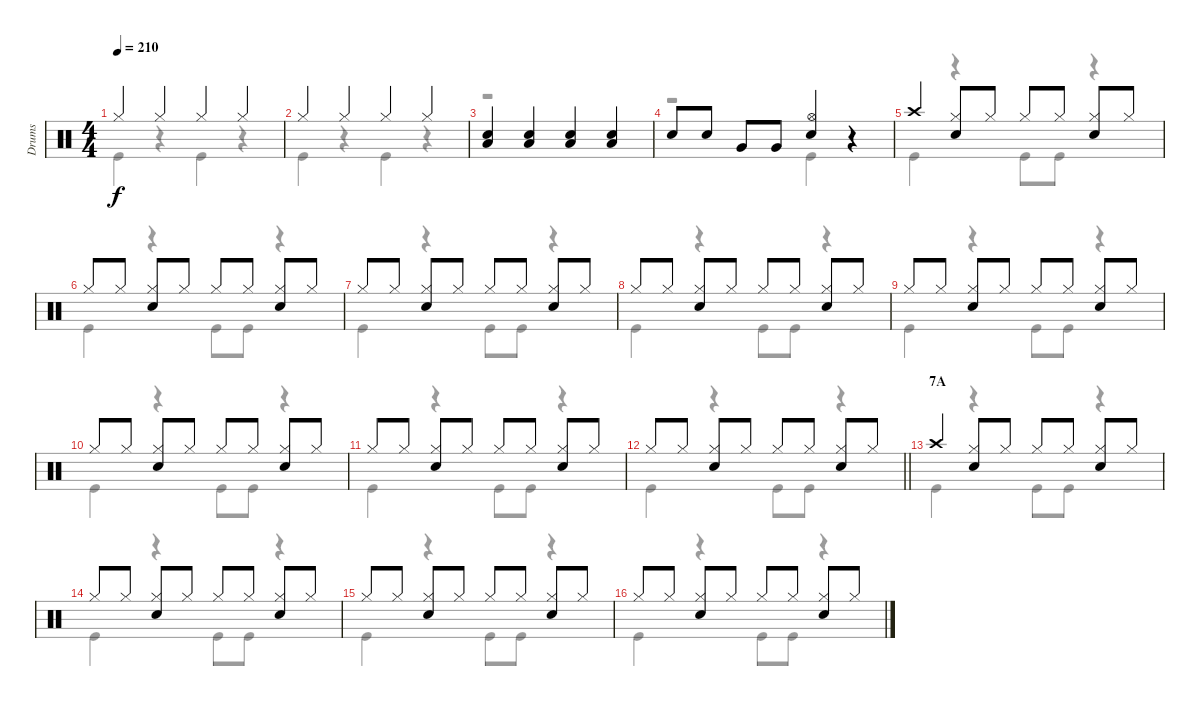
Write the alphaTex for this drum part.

\track ("Drums" "Drums") {instrument percussion}
\staff {score}
\articulation defaults
\voice
\ts (4 4)
\tempo 210
\clef neutral
\ks c "Hi-Hat (closed)".4{dy f} "Hi-Hat (closed)".4 "Hi-Hat (closed)".4 "Hi-Hat (closed)".4
|
"Hi-Hat (closed)".4 "Hi-Hat (closed)".4 "Hi-Hat (closed)".4 "Hi-Hat (closed)".4 |
("Snare (hit) 2" "Low Tom (hit)").4 ("Snare (hit) 2" "Low Tom (hit)").4 ("Snare (hit) 2" "Low Tom (hit)").4 ("Snare (hit) 2" "Low Tom (hit)").4 |
"Snare (hit) 2".8 "Snare (hit) 2".8 "Very Low Tom (hit)".8 "Very Low Tom (hit)".8 ("Hi-Hat (open)" "Snare (hit) 2").4 r.4 |
"Crash high (hit)".4 ("Hi-Hat (closed)" "Snare (hit) 2").8 "Hi-Hat (closed)".8 "Hi-Hat (closed)".8 "Hi-Hat (closed)".8 ("Hi-Hat (closed)" "Snare (hit) 2").8 "Hi-Hat (closed)".8 |
"Hi-Hat (closed)".8 "Hi-Hat (closed)".8 ("Hi-Hat (closed)" "Snare (hit) 2").8 "Hi-Hat (closed)".8 "Hi-Hat (closed)".8 "Hi-Hat (closed)".8 ("Hi-Hat (closed)" "Snare (hit) 2").8 "Hi-Hat (closed)".8 |
"Hi-Hat (closed)".8 "Hi-Hat (closed)".8 ("Hi-Hat (closed)" "Snare (hit) 2").8 "Hi-Hat (closed)".8 "Hi-Hat (closed)".8 "Hi-Hat (closed)".8 ("Hi-Hat (closed)" "Snare (hit) 2").8 "Hi-Hat (closed)".8 |
"Hi-Hat (closed)".8 "Hi-Hat (closed)".8 ("Hi-Hat (closed)" "Snare (hit) 2").8 "Hi-Hat (closed)".8 "Hi-Hat (closed)".8 "Hi-Hat (closed)".8 ("Hi-Hat (closed)" "Snare (hit) 2").8 "Hi-Hat (closed)".8 |
"Hi-Hat (closed)".8 "Hi-Hat (closed)".8 ("Hi-Hat (closed)" "Snare (hit) 2").8 "Hi-Hat (closed)".8 "Hi-Hat (closed)".8 "Hi-Hat (closed)".8 ("Hi-Hat (closed)" "Snare (hit) 2").8 "Hi-Hat (closed)".8 |
"Hi-Hat (closed)".8 "Hi-Hat (closed)".8 ("Hi-Hat (closed)" "Snare (hit) 2").8 "Hi-Hat (closed)".8 "Hi-Hat (closed)".8 "Hi-Hat (closed)".8 ("Hi-Hat (closed)" "Snare (hit) 2").8 "Hi-Hat (closed)".8 |
"Hi-Hat (closed)".8 "Hi-Hat (closed)".8 ("Hi-Hat (closed)" "Snare (hit) 2").8 "Hi-Hat (closed)".8 "Hi-Hat (closed)".8 "Hi-Hat (closed)".8 ("Hi-Hat (closed)" "Snare (hit) 2").8 "Hi-Hat (closed)".8 |
\barLineRight lightlight "Hi-Hat (closed)".8 "Hi-Hat (closed)".8
("Hi-Hat (closed)" "Snare (hit) 2").8 "Hi-Hat (closed)".8 "Hi-Hat (closed)".8 "Hi-Hat (closed)".8 ("Hi-Hat (closed)" "Snare (hit) 2").8 "Hi-Hat (closed)".8 |
\section ("" "7A")
"Crash high (hit)".4 ("Hi-Hat (closed)" "Snare (hit) 2").8 "Hi-Hat (closed)".8 "Hi-Hat (closed)".8 "Hi-Hat (closed)".8 ("Hi-Hat (closed)" "Snare (hit) 2").8 "Hi-Hat (closed)".8 |
"Hi-Hat (closed)".8 "Hi-Hat (closed)".8 ("Hi-Hat (closed)" "Snare (hit) 2").8 "Hi-Hat (closed)".8 "Hi-Hat (closed)".8 "Hi-Hat (closed)".8 ("Hi-Hat (closed)" "Snare (hit) 2").8 "Hi-Hat (closed)".8 |
"Hi-Hat (closed)".8 "Hi-Hat (closed)".8 ("Hi-Hat (closed)" "Snare (hit) 2").8 "Hi-Hat (closed)".8 "Hi-Hat (closed)".8 "Hi-Hat (closed)".8 ("Hi-Hat (closed)" "Snare (hit) 2").8 "Hi-Hat (closed)".8 |
"Hi-Hat (closed)".8 "Hi-Hat (closed)".8 ("Hi-Hat (closed)" "Snare (hit) 2").8 "Hi-Hat (closed)".8 "Hi-Hat (closed)".8 "Hi-Hat (closed)".8 ("Hi-Hat (closed)" "Snare (hit) 2").8 "Hi-Hat (closed)".8
\voice
\clef neutral
\ottava regular
\simile none
\ks c "Kick (hit)".4{dy f}
r.4 "Kick (hit)".4 r.4 |
"Kick (hit)".4 r.4 "Kick (hit)".4 r.4 |
r.1 |
r.2 "Kick (hit)".4 r.4 |
"Kick (hit)".4 r.4 "Kick (hit)".8 "Kick (hit)".8 r.4 |
"Kick (hit)".4 r.4 "Kick (hit)".8 "Kick (hit)".8 r.4 |
"Kick (hit)".4 r.4 "Kick (hit)".8 "Kick (hit)".8 r.4 |
"Kick (hit)".4 r.4 "Kick (hit)".8 "Kick (hit)".8 r.4 |
"Kick (hit)".4 r.4 "Kick (hit)".8 "Kick (hit)".8 r.4 |
"Kick (hit)".4 r.4 "Kick (hit)".8 "Kick (hit)".8 r.4 |
"Kick (hit)".4 r.4 "Kick (hit)".8 "Kick (hit)".8 r.4 |
\barLineRight lightlight "Kick (hit)".4
r.4 "Kick (hit)".8 "Kick (hit)".8 r.4 |
"Kick (hit)".4 r.4 "Kick (hit)".8 "Kick (hit)".8 r.4 |
"Kick (hit)".4 r.4 "Kick (hit)".8 "Kick (hit)".8 r.4 |
"Kick (hit)".4 r.4 "Kick (hit)".8 "Kick (hit)".8 r.4 |
"Kick (hit)".4 r.4 "Kick (hit)".8 "Kick (hit)".8 r.4
